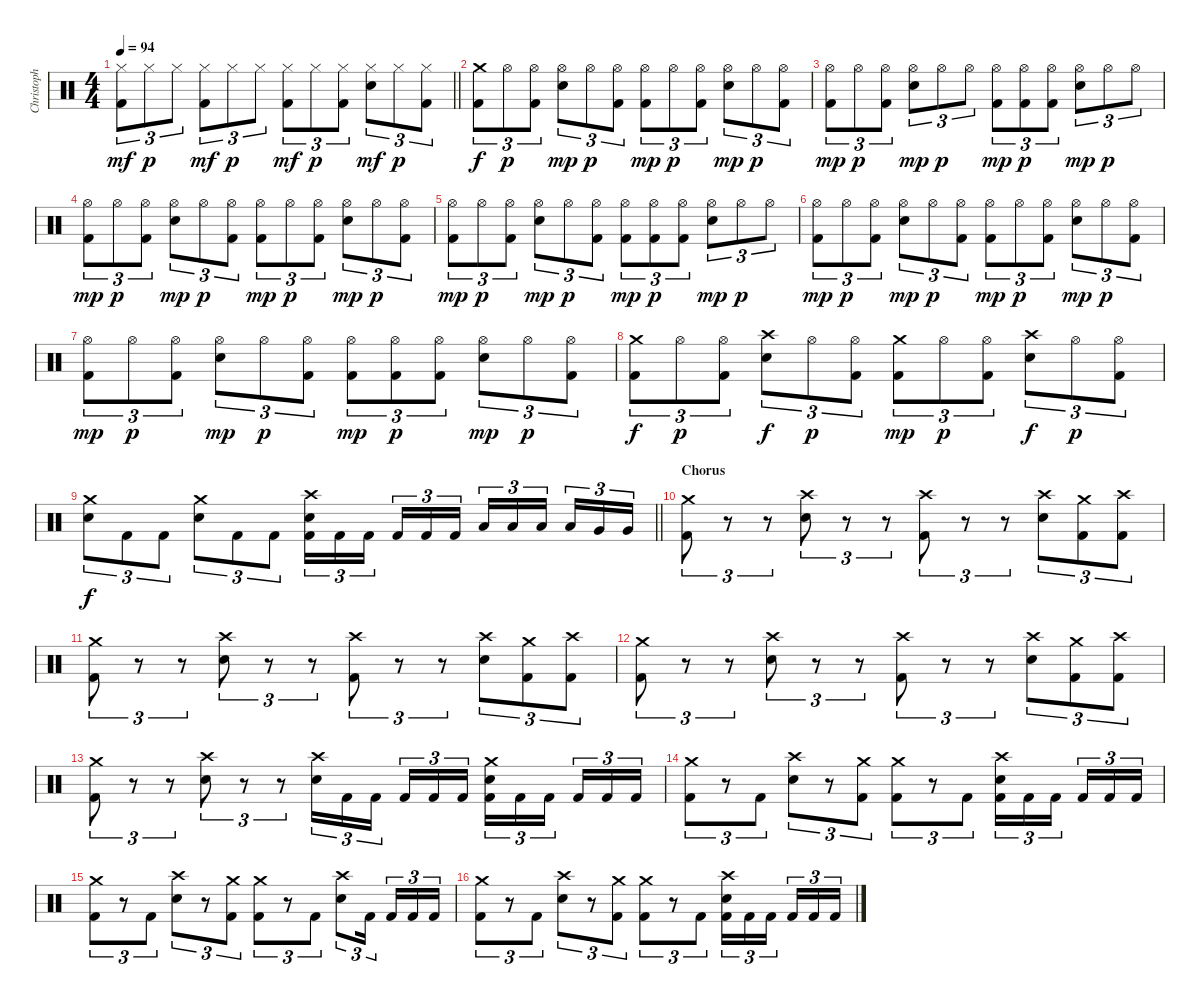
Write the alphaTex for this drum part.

\track ("Christoph Schneider [Drums]" "Christoph ") {instrument percussion}
\staff {score}
\articulation defaults
\ts (4 4)
\tempo 94
\clef neutral
\barLineRight lightlight
\ks c
("Hi-Hat (closed)" "Kick (hit) 2").8{tu (3 2) dy mf} "Hi-Hat (closed)".8{tu (3 2) dy p} "Hi-Hat (closed)".8{tu (3 2)} ("Hi-Hat (closed)" "Kick (hit) 2").8{tu (3 2) dy mf} "Hi-Hat (closed)".8{tu (3 2) dy p} "Hi-Hat (closed)".8{tu (3 2)} ("Hi-Hat (closed)" "Kick (hit) 2").8{tu (3 2) dy mf} "Hi-Hat (closed)".8{tu (3 2) dy p} ("Hi-Hat (closed)" "Kick (hit) 2").8{tu (3 2)} ("Hi-Hat (closed)" "Electric Snare (hit)").8{tu (3 2) dy mf} "Hi-Hat (closed)".8{tu (3 2) dy p} ("Hi-Hat (closed)" "Kick (hit) 2").8{tu (3 2)} |
\section ("" "")
("Crash medium (hit)" "Kick (hit) 2").8{tu (3 2) dy f} "Hi-Hat (open)".8{tu (3 2) dy p} ("Hi-Hat (open)" "Kick (hit) 2").8{tu (3 2)} ("Hi-Hat (open)" "Electric Snare (hit)").8{tu (3 2) dy mp} "Hi-Hat (open)".8{tu (3 2) dy p} ("Hi-Hat (open)" "Kick (hit) 2").8{tu (3 2)} ("Hi-Hat (open)" "Kick (hit) 2").8{tu (3 2) dy mp} "Hi-Hat (open)".8{tu (3 2) dy p} ("Hi-Hat (open)" "Kick (hit) 2").8{tu (3 2)} ("Hi-Hat (open)" "Electric Snare (hit)").8{tu (3 2) dy mp} "Hi-Hat (open)".8{tu (3 2) dy p} ("Hi-Hat (open)" "Kick (hit) 2").8{tu (3 2)} |
("Hi-Hat (open)" "Kick (hit) 2").8{tu (3 2) dy mp} "Hi-Hat (open)".8{tu (3 2) dy p} ("Hi-Hat (open)" "Kick (hit) 2").8{tu (3 2)} ("Hi-Hat (open)" "Electric Snare (hit)").8{tu (3 2) dy mp} "Hi-Hat (open)".8{tu (3 2) dy p} "Hi-Hat (open)".8{tu (3 2)} ("Hi-Hat (open)" "Kick (hit) 2").8{tu (3 2) dy mp} ("Hi-Hat (open)" "Kick (hit) 2").8{tu (3 2) dy p} ("Hi-Hat (open)" "Kick (hit) 2").8{tu (3 2)} ("Hi-Hat (open)" "Electric Snare (hit)").8{tu (3 2) dy mp} "Hi-Hat (open)".8{tu (3 2) dy p} "Hi-Hat (open)".8{tu (3 2)} |
("Hi-Hat (open)" "Kick (hit) 2").8{tu (3 2) dy mp} "Hi-Hat (open)".8{tu (3 2) dy p} ("Hi-Hat (open)" "Kick (hit) 2").8{tu (3 2)} ("Hi-Hat (open)" "Electric Snare (hit)").8{tu (3 2) dy mp} "Hi-Hat (open)".8{tu (3 2) dy p} ("Hi-Hat (open)" "Kick (hit) 2").8{tu (3 2)} ("Hi-Hat (open)" "Kick (hit) 2").8{tu (3 2) dy mp} "Hi-Hat (open)".8{tu (3 2) dy p} ("Hi-Hat (open)" "Kick (hit) 2").8{tu (3 2)} ("Hi-Hat (open)" "Electric Snare (hit)").8{tu (3 2) dy mp} "Hi-Hat (open)".8{tu (3 2) dy p} ("Hi-Hat (open)" "Kick (hit) 2").8{tu (3 2)} |
("Hi-Hat (open)" "Kick (hit) 2").8{tu (3 2) dy mp} "Hi-Hat (open)".8{tu (3 2) dy p} ("Hi-Hat (open)" "Kick (hit) 2").8{tu (3 2)} ("Hi-Hat (open)" "Electric Snare (hit)").8{tu (3 2) dy mp} "Hi-Hat (open)".8{tu (3 2) dy p} ("Hi-Hat (open)" "Kick (hit) 2").8{tu (3 2)} ("Hi-Hat (open)" "Kick (hit) 2").8{tu (3 2) dy mp} ("Hi-Hat (open)" "Kick (hit) 2").8{tu (3 2) dy p} ("Hi-Hat (open)" "Kick (hit) 2").8{tu (3 2)} ("Hi-Hat (open)" "Electric Snare (hit)").8{tu (3 2) dy mp} "Hi-Hat (open)".8{tu (3 2) dy p} "Hi-Hat (open)".8{tu (3 2)} |
("Hi-Hat (open)" "Kick (hit) 2").8{tu (3 2) dy mp} "Hi-Hat (open)".8{tu (3 2) dy p} ("Hi-Hat (open)" "Kick (hit) 2").8{tu (3 2)} ("Hi-Hat (open)" "Electric Snare (hit)").8{tu (3 2) dy mp} "Hi-Hat (open)".8{tu (3 2) dy p} ("Hi-Hat (open)" "Kick (hit) 2").8{tu (3 2)} ("Hi-Hat (open)" "Kick (hit) 2").8{tu (3 2) dy mp} "Hi-Hat (open)".8{tu (3 2) dy p} ("Hi-Hat (open)" "Kick (hit) 2").8{tu (3 2)} ("Hi-Hat (open)" "Electric Snare (hit)").8{tu (3 2) dy mp} "Hi-Hat (open)".8{tu (3 2) dy p} ("Hi-Hat (open)" "Kick (hit) 2").8{tu (3 2)} |
("Hi-Hat (open)" "Kick (hit) 2").8{tu (3 2) dy mp} "Hi-Hat (open)".8{tu (3 2) dy p} ("Hi-Hat (open)" "Kick (hit) 2").8{tu (3 2)} ("Hi-Hat (open)" "Electric Snare (hit)").8{tu (3 2) dy mp} "Hi-Hat (open)".8{tu (3 2) dy p} ("Hi-Hat (open)" "Kick (hit) 2").8{tu (3 2)} ("Hi-Hat (open)" "Kick (hit) 2").8{tu (3 2) dy mp} ("Hi-Hat (open)" "Kick (hit) 2").8{tu (3 2) dy p} ("Hi-Hat (open)" "Kick (hit) 2").8{tu (3 2)} ("Hi-Hat (open)" "Electric Snare (hit)").8{tu (3 2) dy mp} "Hi-Hat (open)".8{tu (3 2) dy p} ("Hi-Hat (open)" "Kick (hit) 2").8{tu (3 2)} |
("Crash medium (hit)" "Kick (hit) 2").8{tu (3 2) dy f} "Hi-Hat (open)".8{tu (3 2) dy p} ("Hi-Hat (open)" "Kick (hit) 2").8{tu (3 2)} ("Crash high (hit)" "Electric Snare (hit)").8{tu (3 2) dy f} "Hi-Hat (open)".8{tu (3 2) dy p} ("Hi-Hat (open)" "Kick (hit) 2").8{tu (3 2)} ("Crash medium (hit)" "Kick (hit) 2").8{tu (3 2) dy mp} "Hi-Hat (open)".8{tu (3 2) dy p} ("Hi-Hat (open)" "Kick (hit) 2").8{tu (3 2)} ("Crash high (hit)" "Electric Snare (hit)").8{tu (3 2) dy f} "Hi-Hat (open)".8{tu (3 2) dy p} ("Hi-Hat (open)" "Kick (hit) 2").8{tu (3 2)} |
\barLineRight lightlight
("Crash medium (hit)" "Electric Snare (hit)").8{tu (3 2) dy f} "Kick (hit) 2".8{tu (3 2)} "Kick (hit) 2".8{tu (3 2)} ("Crash medium (hit)" "Electric Snare (hit)").8{tu (3 2)} "Kick (hit) 2".8{tu (3 2)} "Kick (hit) 2".8{tu (3 2)} ("Crash high (hit)" "Electric Snare (hit)" "Kick (hit) 2").16{tu (3 2)} "Kick (hit) 2".16{tu (3 2)} "Kick (hit) 2".16{tu (3 2)} "Kick (hit) 2".16{tu (3 2)} "Kick (hit) 2".16{tu (3 2)} "Kick (hit) 2".16{tu (3 2)} "Low Tom (hit)".16{tu (3 2)} "Low Tom (hit)".16{tu (3 2)} "Low Tom (hit)".16{tu (3 2)} "Low Tom (hit)".16{tu (3 2)} "Very Low Tom (hit)".16{tu (3 2)} "Very Low Tom (hit)".16{tu (3 2)} |
\section ("" "Chorus")
("Crash medium (hit)" "Kick (hit) 2").8{tu (3 2)} r.8{tu (3 2)} r.8{tu (3 2)} ("Crash high (hit)" "Electric Snare (hit)").8{tu (3 2)} r.8{tu (3 2)} r.8{tu (3 2)} ("Crash high (hit)" "Kick (hit) 2").8{tu (3 2)} r.8{tu (3 2)} r.8{tu (3 2)} ("Crash high (hit)" "Electric Snare (hit)").8{tu (3 2)} ("Crash medium (hit)" "Kick (hit) 2").8{tu (3 2)} ("Crash high (hit)" "Kick (hit) 2").8{tu (3 2)} |
("Crash medium (hit)" "Kick (hit) 2").8{tu (3 2)} r.8{tu (3 2)} r.8{tu (3 2)} ("Crash high (hit)" "Electric Snare (hit)").8{tu (3 2)} r.8{tu (3 2)} r.8{tu (3 2)} ("Crash high (hit)" "Kick (hit) 2").8{tu (3 2)} r.8{tu (3 2)} r.8{tu (3 2)} ("Crash high (hit)" "Electric Snare (hit)").8{tu (3 2)} ("Crash medium (hit)" "Kick (hit) 2").8{tu (3 2)} ("Crash high (hit)" "Kick (hit) 2").8{tu (3 2)} |
("Crash medium (hit)" "Kick (hit) 2").8{tu (3 2)} r.8{tu (3 2)} r.8{tu (3 2)} ("Crash high (hit)" "Electric Snare (hit)").8{tu (3 2)} r.8{tu (3 2)} r.8{tu (3 2)} ("Crash high (hit)" "Kick (hit) 2").8{tu (3 2)} r.8{tu (3 2)} r.8{tu (3 2)} ("Crash high (hit)" "Electric Snare (hit)").8{tu (3 2)} ("Crash medium (hit)" "Kick (hit) 2").8{tu (3 2)} ("Crash high (hit)" "Kick (hit) 2").8{tu (3 2)} |
("Crash medium (hit)" "Kick (hit) 2").8{tu (3 2)} r.8{tu (3 2)} r.8{tu (3 2)} ("Crash high (hit)" "Electric Snare (hit)").8{tu (3 2)} r.8{tu (3 2)} r.8{tu (3 2)} ("Crash high (hit)" "Electric Snare (hit)").16{tu (3 2)} "Kick (hit) 2".16{tu (3 2)} "Kick (hit) 2".16{tu (3 2)} "Kick (hit) 2".16{tu (3 2)} "Kick (hit) 2".16{tu (3 2)} "Kick (hit) 2".16{tu (3 2)} ("Crash medium (hit)" "Electric Snare (hit)" "Kick (hit) 2").16{tu (3 2)} "Kick (hit) 2".16{tu (3 2)} "Kick (hit) 2".16{tu (3 2)} "Kick (hit) 2".16{tu (3 2)} "Kick (hit) 2".16{tu (3 2)} "Kick (hit) 2".16{tu (3 2)} |
("Crash medium (hit)" "Kick (hit) 2").8{tu (3 2)} r.8{tu (3 2)} "Kick (hit) 2".8{tu (3 2)} ("Crash high (hit)" "Electric Snare (hit)").8{tu (3 2)} r.8{tu (3 2)} ("Crash medium (hit)" "Kick (hit) 2").8{tu (3 2)} ("Crash medium (hit)" "Kick (hit) 2").8{tu (3 2)} r.8{tu (3 2)} "Kick (hit) 2".8{tu (3 2)} ("Crash high (hit)" "Electric Snare (hit)" "Kick (hit) 2").16{tu (3 2)} "Kick (hit) 2".16{tu (3 2)} "Kick (hit) 2".16{tu (3 2)} "Kick (hit) 2".16{tu (3 2)} "Kick (hit) 2".16{tu (3 2)} "Kick (hit) 2".16{tu (3 2)} |
("Crash medium (hit)" "Kick (hit) 2").8{tu (3 2)} r.8{tu (3 2)} "Kick (hit) 2".8{tu (3 2)} ("Crash high (hit)" "Electric Snare (hit)").8{tu (3 2)} r.8{tu (3 2)} ("Crash medium (hit)" "Kick (hit) 2").8{tu (3 2)} ("Crash medium (hit)" "Kick (hit) 2").8{tu (3 2)} r.8{tu (3 2)} "Kick (hit) 2".8{tu (3 2)} ("Crash high (hit)" "Electric Snare (hit)").8{tu (3 2)} "Kick (hit) 2".16{tu (3 2)} "Kick (hit) 2".16{tu (3 2)} "Kick (hit) 2".16{tu (3 2)} "Kick (hit) 2".16{tu (3 2)} |
("Crash medium (hit)" "Kick (hit) 2").8{tu (3 2)} r.8{tu (3 2)} "Kick (hit) 2".8{tu (3 2)} ("Crash high (hit)" "Electric Snare (hit)").8{tu (3 2)} r.8{tu (3 2)} ("Crash medium (hit)" "Kick (hit) 2").8{tu (3 2)} ("Crash medium (hit)" "Kick (hit) 2").8{tu (3 2)} r.8{tu (3 2)} "Kick (hit) 2".8{tu (3 2)} ("Crash high (hit)" "Electric Snare (hit)" "Kick (hit) 2").16{tu (3 2)} "Kick (hit) 2".16{tu (3 2)} "Kick (hit) 2".16{tu (3 2)} "Kick (hit) 2".16{tu (3 2)} "Kick (hit) 2".16{tu (3 2)} "Kick (hit) 2".16{tu (3 2)}
